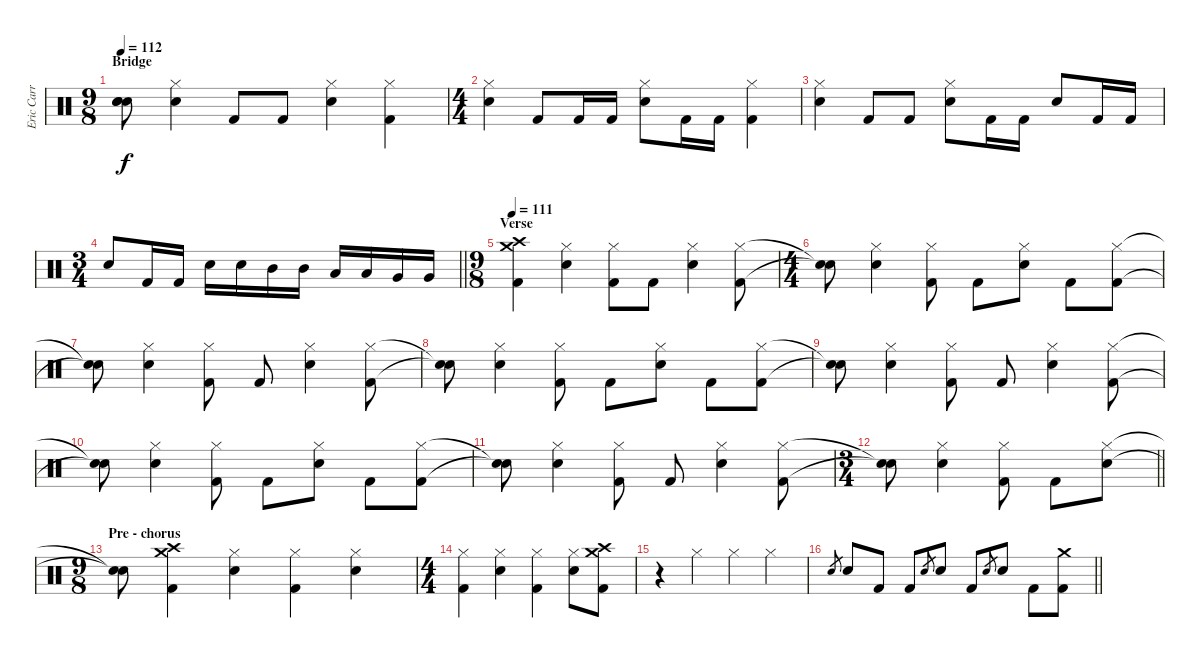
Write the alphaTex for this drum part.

\track ("Eric Carr" "Eric Carr") {instrument percussion}
\staff {score}
\articulation defaults
\ts (9 8)
\section ("" "Bridge")
\tempo 112
\clef neutral
\ks c
("Snare (hit)"{t} "Snare (hit)"{t} "Snare (hit)"{t}).8{dy f} ("Hi-Hat (closed)" "Snare (hit) 2").4 "Kick (hit) 2".8 "Kick (hit) 2".8 ("Hi-Hat (closed)" "Snare (hit) 2").4 ("Hi-Hat (closed)" "Kick (hit) 2").4 |
\ts (4 4)
("Hi-Hat (closed)" "Snare (hit) 2").4 "Kick (hit) 2".8 "Kick (hit) 2".16 "Kick (hit) 2".16 ("Hi-Hat (closed)" "Snare (hit) 2").8 "Kick (hit) 2".16 "Kick (hit) 2".16 ("Hi-Hat (closed)" "Kick (hit) 2").4 |
("Hi-Hat (closed)" "Snare (hit) 2").4 "Kick (hit) 2".8 "Kick (hit) 2".8 ("Hi-Hat (closed)" "Snare (hit) 2").8 "Kick (hit) 2".16 "Kick (hit) 2".16 "Snare (hit) 2".8 "Kick (hit) 2".16 "Kick (hit) 2".16 |
\ts (3 4)
\barLineRight lightlight "Snare (hit) 2".8 "Kick (hit) 2".16 "Kick (hit) 2".16 "Snare (hit) 2".16 "Snare (hit) 2".16 "Mid Tom (hit)".16 "Mid Tom (hit)".16 "Low Tom (hit)".16 "Low Tom (hit)".16 "Very Low Tom (hit)".16 "Very Low Tom (hit)".16
|
\ts (9 8)
\section ("" "Verse")
\tempo 111
("Crash medium (hit)" "Crash high (hit)" "Kick (hit) 2").4 ("Hi-Hat (closed)" "Snare (hit) 2").4 ("Hi-Hat (closed)" "Kick (hit) 2").8 "Kick (hit) 2".8 ("Hi-Hat (closed)" "Snare (hit) 2").4 ("Hi-Hat (closed)" "Kick (hit) 2").8 |
\ts (4 4)
("Snare (hit)"{t} "Snare (hit)"{t}).8 ("Hi-Hat (closed)" "Snare (hit) 2").4 ("Hi-Hat (closed)" "Kick (hit) 2").8 "Kick (hit) 2".8 ("Hi-Hat (closed)" "Snare (hit) 2").8 "Kick (hit) 2".8 ("Hi-Hat (closed)" "Kick (hit) 2").8 |
("Snare (hit)"{t} "Snare (hit)"{t}).8 ("Hi-Hat (closed)" "Snare (hit) 2").4 ("Hi-Hat (closed)" "Kick (hit) 2").8 "Kick (hit) 2".8 ("Hi-Hat (closed)" "Snare (hit) 2").4 ("Hi-Hat (closed)" "Kick (hit) 2").8 |
("Snare (hit)"{t} "Snare (hit)"{t}).8 ("Hi-Hat (closed)" "Snare (hit) 2").4 ("Hi-Hat (closed)" "Kick (hit) 2").8 "Kick (hit) 2".8 ("Hi-Hat (closed)" "Snare (hit) 2").8 "Kick (hit) 2".8 ("Hi-Hat (closed)" "Kick (hit) 2").8 |
("Snare (hit)"{t} "Snare (hit)"{t}).8 ("Hi-Hat (closed)" "Snare (hit) 2").4 ("Hi-Hat (closed)" "Kick (hit) 2").8 "Kick (hit) 2".8 ("Hi-Hat (closed)" "Snare (hit) 2").4 ("Hi-Hat (closed)" "Kick (hit) 2").8 |
("Snare (hit)"{t} "Snare (hit)"{t}).8 ("Hi-Hat (closed)" "Snare (hit) 2").4 ("Hi-Hat (closed)" "Kick (hit) 2").8 "Kick (hit) 2".8 ("Hi-Hat (closed)" "Snare (hit) 2").8 "Kick (hit) 2".8 ("Hi-Hat (closed)" "Kick (hit) 2").8 |
("Snare (hit)"{t} "Snare (hit)"{t}).8 ("Hi-Hat (closed)" "Snare (hit) 2").4 ("Hi-Hat (closed)" "Kick (hit) 2").8 "Kick (hit) 2".8 ("Hi-Hat (closed)" "Snare (hit) 2").4 ("Hi-Hat (closed)" "Kick (hit) 2").8 |
\ts (3 4)
\barLineRight lightlight
("Snare (hit)"{t} "Snare (hit)"{t}).8 ("Hi-Hat (closed)" "Snare (hit) 2").4 ("Hi-Hat (closed)" "Kick (hit) 2").8 "Kick (hit) 2".8 ("Hi-Hat (closed)" "Snare (hit) 2").8 |
\ts (9 8)
\section ("" "Pre - chorus")
("Snare (hit)"{t} "Snare (hit)"{t}).8 ("Crash medium (hit)" "Crash high (hit)" "Kick (hit) 2").4 ("Hi-Hat (closed)" "Snare (hit) 2").4 ("Hi-Hat (closed)" "Kick (hit) 2").4 ("Hi-Hat (closed)" "Snare (hit) 2").4 |
\ts (4 4)
("Hi-Hat (closed)" "Kick (hit) 2").4 ("Hi-Hat (closed)" "Snare (hit) 2").4 ("Hi-Hat (closed)" "Kick (hit) 2").4 ("Hi-Hat (closed)" "Snare (hit) 2").8 ("Crash medium (hit)" "Crash high (hit)" "Kick (hit) 2").8 |
r.4 "Hi-Hat (closed)".4 "Hi-Hat (closed)".4 "Hi-Hat (closed)".4 |
\barLineRight lightlight "Snare (hit) 2".8{gr} "Snare (hit) 2".8 "Kick (hit) 2".8 "Kick (hit) 2".8 "Snare (hit) 2".8{gr} "Snare (hit) 2".8 "Kick (hit) 2".8 "Snare (hit) 2".8{gr} "Snare (hit) 2".8 "Kick (hit) 2".8
("Crash medium (hit)" "Kick (hit) 2").8
